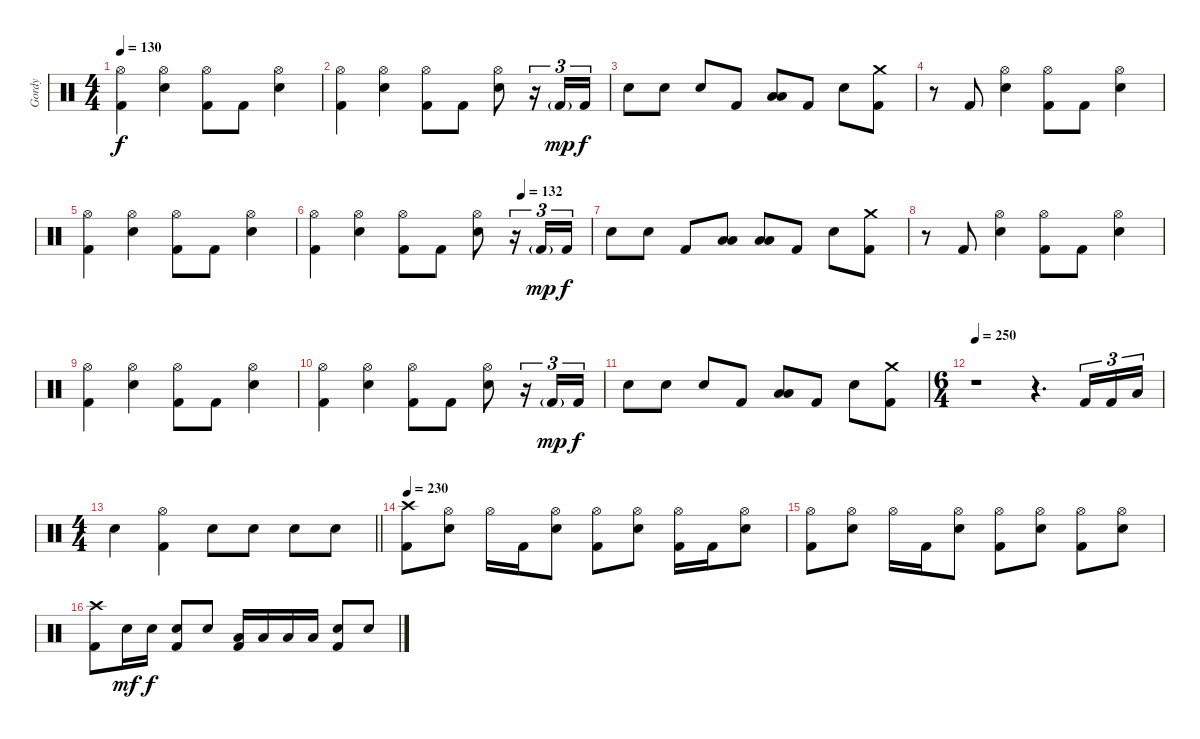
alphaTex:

\track ("Gordy" "Gordy") {instrument percussion}
\staff {score}
\articulation defaults
\ts (4 4)
\tempo 130
\clef neutral
\ks c
("Hi-Hat (open)" "Kick (hit) 2").4{dy f} ("Hi-Hat (open)" "Electric Snare (hit)").4 ("Hi-Hat (open)" "Kick (hit) 2").8 "Kick (hit) 2".8 ("Hi-Hat (open)" "Electric Snare (hit)").4 |
("Hi-Hat (open)" "Kick (hit) 2").4 ("Hi-Hat (open)" "Electric Snare (hit)").4 ("Hi-Hat (open)" "Kick (hit) 2").8 "Kick (hit) 2".8 ("Hi-Hat (open)" "Electric Snare (hit)").8 r.16{tu (3 2)} "Kick (hit) 2"{g}.16{tu (3 2) dy mp} "Kick (hit) 2".16{tu (3 2) dy f} |
"Electric Snare (hit)".8 "Electric Snare (hit)".8 "Electric Snare (hit)".8 "Kick (hit) 2".8 ("Low Tom (hit)" "Low Floor Tom (hit)").8 "Kick (hit) 2".8 "Electric Snare (hit)".8 ("Crash medium (hit)" "Kick (hit) 2").8 |
r.8 "Kick (hit) 2".8 ("Hi-Hat (open)" "Electric Snare (hit)").4 ("Hi-Hat (open)" "Kick (hit) 2").8 "Kick (hit) 2".8 ("Hi-Hat (open)" "Electric Snare (hit)").4 |
("Hi-Hat (open)" "Kick (hit) 2").4 ("Hi-Hat (open)" "Electric Snare (hit)").4 ("Hi-Hat (open)" "Kick (hit) 2").8 "Kick (hit) 2".8 ("Hi-Hat (open)" "Electric Snare (hit)").4 |
\tempo (132 0.75)
("Hi-Hat (open)" "Kick (hit) 2").4 ("Hi-Hat (open)" "Electric Snare (hit)").4 ("Hi-Hat (open)" "Kick (hit) 2").8 "Kick (hit) 2".8 ("Hi-Hat (open)" "Electric Snare (hit)").8 r.16{tu (3 2)} "Kick (hit) 2"{g}.16{tu (3 2) dy mp} "Kick (hit) 2".16{tu (3 2) dy f} |
"Electric Snare (hit)".8 "Electric Snare (hit)".8 "Kick (hit) 2".8 ("Low Tom (hit)" "Low Floor Tom (hit)").8 ("Low Tom (hit)" "Low Floor Tom (hit)").8 "Kick (hit) 2".8 "Electric Snare (hit)".8 ("Crash medium (hit)" "Kick (hit) 2").8 |
r.8 "Kick (hit) 2".8 ("Hi-Hat (open)" "Electric Snare (hit)").4 ("Hi-Hat (open)" "Kick (hit) 2").8 "Kick (hit) 2".8 ("Hi-Hat (open)" "Electric Snare (hit)").4 |
("Hi-Hat (open)" "Kick (hit) 2").4 ("Hi-Hat (open)" "Electric Snare (hit)").4 ("Hi-Hat (open)" "Kick (hit) 2").8 "Kick (hit) 2".8 ("Hi-Hat (open)" "Electric Snare (hit)").4 |
("Hi-Hat (open)" "Kick (hit) 2").4 ("Hi-Hat (open)" "Electric Snare (hit)").4 ("Hi-Hat (open)" "Kick (hit) 2").8 "Kick (hit) 2".8 ("Hi-Hat (open)" "Electric Snare (hit)").8 r.16{tu (3 2)} "Kick (hit) 2"{g}.16{tu (3 2) dy mp} "Kick (hit) 2".16{tu (3 2) dy f} |
"Electric Snare (hit)".8 "Electric Snare (hit)".8 "Electric Snare (hit)".8 "Kick (hit) 2".8 ("Low Tom (hit)" "Low Floor Tom (hit)").8 "Kick (hit) 2".8 "Electric Snare (hit)".8 ("Crash medium (hit)" "Kick (hit) 2").8 |
\ts (6 4)
\tempo 250
r.1 r.4{d} "Kick (hit) 2".16{tu (3 2)} "Kick (hit) 2".16{tu (3 2)} "Low Floor Tom (hit)".16{tu (3 2)} |
\ts (4 4)
\barLineRight lightlight "Electric Snare (hit)".4
("Hi-Hat (open)" "Kick (hit) 2").4 "Electric Snare (hit)".8 "Electric Snare (hit)".8 "Electric Snare (hit)".8 "Electric Snare (hit)".8 |
\section ("" "")
\tempo 230
("Crash high (hit)" "Kick (hit) 2").8 ("Hi-Hat (open)" "Electric Snare (hit)").8 "Hi-Hat (open)".16 "Kick (hit) 2".16 ("Hi-Hat (open)" "Electric Snare (hit)").8 ("Hi-Hat (open)" "Kick (hit) 2").8 ("Hi-Hat (open)" "Electric Snare (hit)").8 ("Hi-Hat (open)" "Kick (hit) 2").16 "Kick (hit) 2".16 ("Hi-Hat (open)" "Electric Snare (hit)").8 |
("Hi-Hat (open)" "Kick (hit) 2").8 ("Hi-Hat (open)" "Electric Snare (hit)").8 "Hi-Hat (open)".16 "Kick (hit) 2".16 ("Hi-Hat (open)" "Electric Snare (hit)").8 ("Hi-Hat (open)" "Kick (hit) 2").8 ("Hi-Hat (open)" "Electric Snare (hit)").8 ("Hi-Hat (open)" "Kick (hit) 2").8 ("Hi-Hat (open)" "Electric Snare (hit)").8 |
("Crash high (hit)" "Kick (hit) 2").8 "Electric Snare (hit)".16{dy mf} "Electric Snare (hit)".16{dy f} ("Electric Snare (hit)" "Kick (hit) 2").8 "Electric Snare (hit)".8 ("Low Tom (hit)" "Kick (hit) 2").16 "Low Tom (hit)".16 "Low Tom (hit)".16 "Low Tom (hit)".16 ("Electric Snare (hit)" "Kick (hit) 2").8 "Electric Snare (hit)".8
